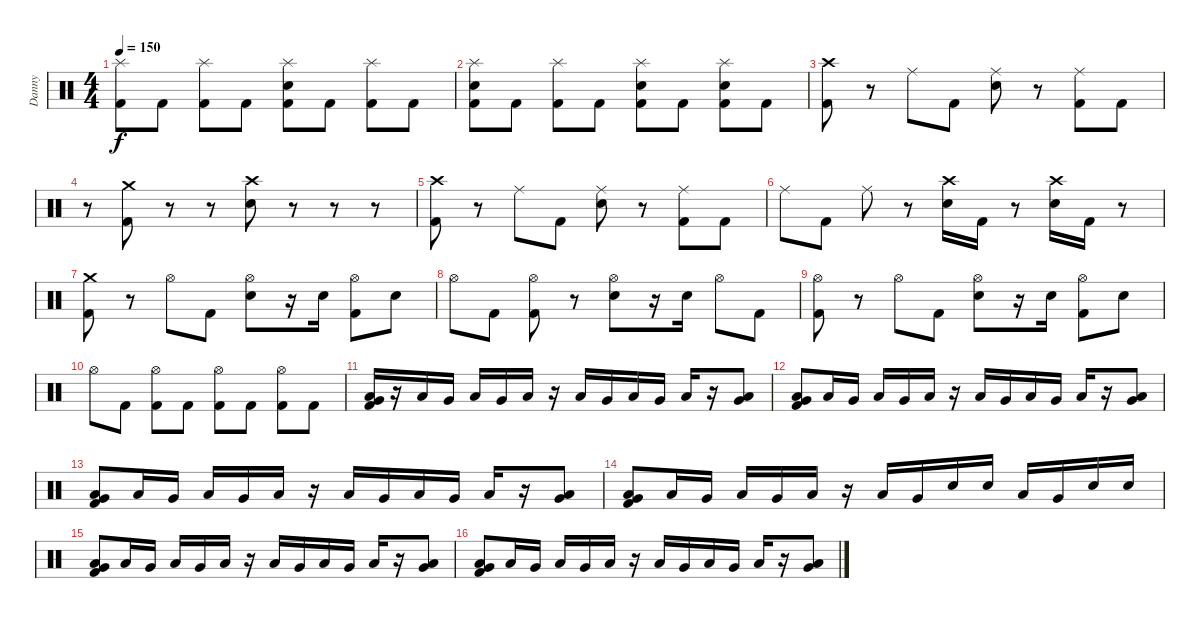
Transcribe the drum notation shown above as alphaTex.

\track ("Danny" "Danny") {instrument percussion}
\staff {score}
\articulation defaults
\ts (4 4)
\tempo 150
\clef neutral
\ks c
("Splash (hit)" "Kick (hit) 2").8{dy f} "Kick (hit) 2".8 ("Splash (hit)" "Kick (hit) 2").8 "Kick (hit) 2".8 ("Splash (hit)" "Electric Snare (hit)" "Kick (hit) 2").8 "Kick (hit) 2".8 ("Splash (hit)" "Kick (hit) 2").8 "Kick (hit) 2".8 |
("Splash (hit)" "Electric Snare (hit)" "Kick (hit) 2").8 "Kick (hit) 2".8 ("Splash (hit)" "Kick (hit) 2").8 "Kick (hit) 2".8 ("Splash (hit)" "Electric Snare (hit)" "Kick (hit) 2").8 "Kick (hit) 2".8 ("Splash (hit)" "Electric Snare (hit)" "Kick (hit) 2").8 "Kick (hit) 2".8 |
("Crash high (hit)" "Kick (hit) 2").8 r.8 "Ride (middle)".8 "Kick (hit) 2".8 ("Ride (middle)" "Electric Snare (hit)").8 r.8 ("Ride (middle)" "Kick (hit) 2").8 "Kick (hit) 2".8 |
r.8 ("Crash medium (hit)" "Kick (hit) 2").8 r.8 r.8 ("Crash high (hit)" "Electric Snare (hit)").8 r.8 r.8 r.8 |
("Crash high (hit)" "Kick (hit) 2").8 r.8 "Ride (middle)".8 "Kick (hit) 2".8 ("Ride (middle)" "Electric Snare (hit)").8 r.8 ("Ride (middle)" "Kick (hit) 2").8 "Kick (hit) 2".8 |
"Ride (middle)".8 "Kick (hit) 2".8 "Ride (middle)".8 r.8 ("Crash high (hit)" "Electric Snare (hit)").16 "Kick (hit) 2".16 r.8 ("Crash high (hit)" "Electric Snare (hit)").16 "Kick (hit) 2".16 r.8 |
("Crash medium (hit)" "Kick (hit) 2").8 r.8 "Hi-Hat (open)".8 "Kick (hit) 2".8 ("Hi-Hat (open)" "Electric Snare (hit)").8 r.16 "Electric Snare (hit)".16 ("Hi-Hat (open)" "Kick (hit) 2").8 "Electric Snare (hit)".8 |
"Hi-Hat (open)".8 "Kick (hit) 2".8 ("Hi-Hat (open)" "Kick (hit) 2").8 r.8 ("Hi-Hat (open)" "Electric Snare (hit)").8 r.16 "Electric Snare (hit)".16 "Hi-Hat (open)".8 "Kick (hit) 2".8 |
("Hi-Hat (open)" "Kick (hit) 2").8 r.8 "Hi-Hat (open)".8 "Kick (hit) 2".8 ("Hi-Hat (open)" "Electric Snare (hit)").8 r.16 "Electric Snare (hit)".16 ("Hi-Hat (open)" "Kick (hit) 2").8 "Electric Snare (hit)".8 |
"Hi-Hat (open)".8 "Kick (hit) 2".8 ("Hi-Hat (open)" "Kick (hit) 2").8 "Kick (hit) 2".8 ("Hi-Hat (open)" "Kick (hit) 2").8 "Kick (hit) 2".8 ("Hi-Hat (open)" "Kick (hit) 2").8 "Kick (hit) 2".8 |
("Very Low Tom (hit)" "Low Floor Tom (hit)" "Kick (hit) 2").16{volume 13} r.16 "Low Floor Tom (hit)".16 "Very Low Tom (hit)".16 "Low Floor Tom (hit)".16 "Very Low Tom (hit)".16 "Low Floor Tom (hit)".16 r.16 "Low Floor Tom (hit)".16 "Very Low Tom (hit)".16 "Low Floor Tom (hit)".16 "Very Low Tom (hit)".16 "Low Floor Tom (hit)".16 r.16 ("Very Low Tom (hit)" "Low Floor Tom (hit)").8 |
("Very Low Tom (hit)" "Low Floor Tom (hit)" "Kick (hit) 2").8 "Low Floor Tom (hit)".16 "Very Low Tom (hit)".16 "Low Floor Tom (hit)".16 "Very Low Tom (hit)".16 "Low Floor Tom (hit)".16 r.16 "Low Floor Tom (hit)".16 "Very Low Tom (hit)".16 "Low Floor Tom (hit)".16 "Very Low Tom (hit)".16 "Low Floor Tom (hit)".16 r.16 ("Very Low Tom (hit)" "Low Floor Tom (hit)").8 |
("Very Low Tom (hit)" "Low Floor Tom (hit)" "Kick (hit) 2").8 "Low Floor Tom (hit)".16 "Very Low Tom (hit)".16 "Low Floor Tom (hit)".16 "Very Low Tom (hit)".16 "Low Floor Tom (hit)".16 r.16 "Low Floor Tom (hit)".16 "Very Low Tom (hit)".16 "Low Floor Tom (hit)".16 "Very Low Tom (hit)".16 "Low Floor Tom (hit)".16 r.16 ("Very Low Tom (hit)" "Low Floor Tom (hit)").8 |
("Very Low Tom (hit)" "Low Floor Tom (hit)" "Kick (hit) 2").8 "Low Floor Tom (hit)".16 "Very Low Tom (hit)".16 "Low Floor Tom (hit)".16 "Very Low Tom (hit)".16 "Low Floor Tom (hit)".16 r.16 "Low Floor Tom (hit)".16 "Very Low Tom (hit)".16 "Electric Snare (hit)".16 "Electric Snare (hit)".16 "Low Floor Tom (hit)".16 "Very Low Tom (hit)".16 "Electric Snare (hit)".16 "Electric Snare (hit)".16 |
("Very Low Tom (hit)" "Low Floor Tom (hit)" "Kick (hit) 2").8 "Low Floor Tom (hit)".16 "Very Low Tom (hit)".16 "Low Floor Tom (hit)".16 "Very Low Tom (hit)".16 "Low Floor Tom (hit)".16 r.16 "Low Floor Tom (hit)".16 "Very Low Tom (hit)".16 "Low Floor Tom (hit)".16 "Very Low Tom (hit)".16 "Low Floor Tom (hit)".16 r.16 ("Very Low Tom (hit)" "Low Floor Tom (hit)").8 |
("Very Low Tom (hit)" "Low Floor Tom (hit)" "Kick (hit) 2").8 "Low Floor Tom (hit)".16 "Very Low Tom (hit)".16 "Low Floor Tom (hit)".16 "Very Low Tom (hit)".16 "Low Floor Tom (hit)".16 r.16 "Low Floor Tom (hit)".16 "Very Low Tom (hit)".16 "Low Floor Tom (hit)".16 "Very Low Tom (hit)".16 "Low Floor Tom (hit)".16 r.16 ("Very Low Tom (hit)" "Low Floor Tom (hit)").8
